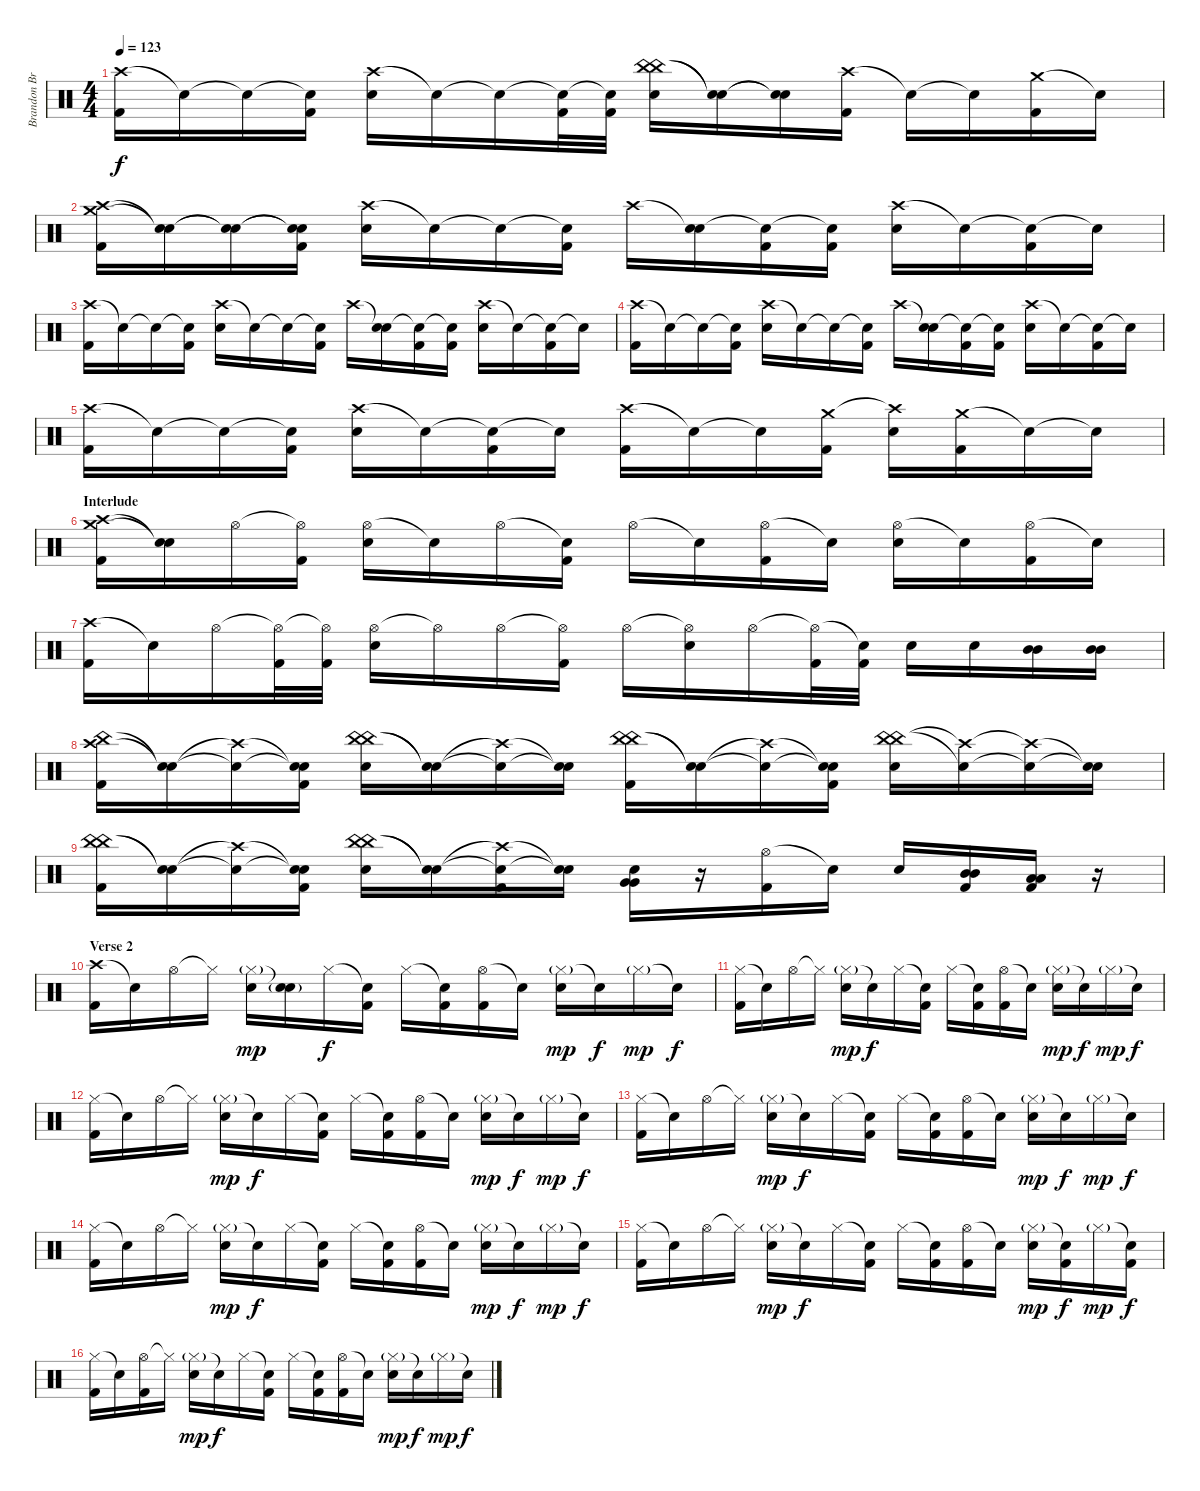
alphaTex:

\track ("Brandon Brown (Drums)" "Brandon Br") {instrument percussion}
\staff {score}
\articulation defaults
\ts (4 4)
\tempo 123
\clef neutral
\ks c
("Crash high (hit)" "Kick (hit) 2").16{dy f} "Snare (hit)"{t}.16 "Snare (hit)"{t}.16 ("Snare (hit)"{t} "Kick (hit) 2").16 ("Crash high (hit)" "Electric Snare (hit)").16 "Snare (hit)"{t}.16 "Snare (hit)"{t}.16 ("Snare (hit)"{t} "Kick (hit) 2").32 ("Snare (hit)"{t} "Kick (hit) 2").32 ("China (hit)" "China (hit)" "Electric Snare (hit)").16 ("Snare (hit)"{t} "Snare (hit)"{t}).16 ("Snare (hit)"{t} "Snare (hit)"{t}).16 ("Crash high (hit)" "Kick (hit) 2").16 "Snare (hit)"{t}.16 "Snare (hit)"{t}.16 ("Crash medium (hit)" "Kick (hit) 2").16 "Snare (hit)"{t}.16 |
("Crash high (hit)" "Crash medium (hit)" "Kick (hit) 2").16 ("Snare (hit)"{t} "Snare (hit)"{t}).16 ("Snare (hit)"{t} "Snare (hit)"{t}).16 ("Snare (hit)"{t} "Snare (hit)"{t} "Kick (hit) 2").16 ("Crash high (hit)" "Electric Snare (hit)").16 "Snare (hit)"{t}.16 "Snare (hit)"{t}.16 ("Snare (hit)"{t} "Kick (hit) 2").16 "Crash high (hit)".16 ("Snare (hit)"{t} "Electric Snare (hit)").16 ("Snare (hit)"{t} "Kick (hit) 2").16 ("Snare (hit)"{t} "Kick (hit) 2").16 ("Crash high (hit)" "Electric Snare (hit)").16 "Snare (hit)"{t}.16 ("Snare (hit)"{t} "Kick (hit) 2").16 "Snare (hit)"{t}.16 |
("Crash high (hit)" "Kick (hit) 2").16 "Snare (hit)"{t}.16 "Snare (hit)"{t}.16 ("Snare (hit)"{t} "Kick (hit) 2").16 ("Crash high (hit)" "Electric Snare (hit)").16 "Snare (hit)"{t}.16 "Snare (hit)"{t}.16 ("Snare (hit)"{t} "Kick (hit) 2").16 "Crash high (hit)".16 ("Snare (hit)"{t} "Electric Snare (hit)").16 ("Snare (hit)"{t} "Kick (hit) 2").16 ("Snare (hit)"{t} "Kick (hit) 2").16 ("Crash high (hit)" "Electric Snare (hit)").16 "Snare (hit)"{t}.16 ("Snare (hit)"{t} "Kick (hit) 2").16 "Snare (hit)"{t}.16 |
("Crash high (hit)" "Kick (hit) 2").16 "Snare (hit)"{t}.16 "Snare (hit)"{t}.16 ("Snare (hit)"{t} "Kick (hit) 2").16 ("Crash high (hit)" "Electric Snare (hit)").16 "Snare (hit)"{t}.16 "Snare (hit)"{t}.16 ("Snare (hit)"{t} "Kick (hit) 2").16 "Crash high (hit)".16 ("Snare (hit)"{t} "Electric Snare (hit)").16 ("Snare (hit)"{t} "Kick (hit) 2").16 ("Snare (hit)"{t} "Kick (hit) 2").16 ("Crash high (hit)" "Electric Snare (hit)").16 "Snare (hit)"{t}.16 ("Snare (hit)"{t} "Kick (hit) 2").16 "Snare (hit)"{t}.16 |
("Crash high (hit)" "Kick (hit) 2").16 "Snare (hit)"{t}.16 "Snare (hit)"{t}.16 ("Snare (hit)"{t} "Kick (hit) 2").16 ("Crash high (hit)" "Electric Snare (hit)").16 "Snare (hit)"{t}.16 ("Snare (hit)"{t} "Kick (hit) 2").16 "Snare (hit)"{t}.16 ("Crash high (hit)" "Kick (hit) 2").16 "Snare (hit)"{t}.16 "Snare (hit)"{t}.16 ("Crash medium (hit)" "Kick (hit) 2").16 ("Crash high (hit)"{t} "Electric Snare (hit)").16 ("Crash medium (hit)" "Kick (hit) 2").16 "Snare (hit)"{t}.16 "Snare (hit)"{t}.16 |
\section ("" "Interlude")
("Crash high (hit)" "Crash medium (hit)" "Kick (hit) 2").16 ("Snare (hit)"{t} "Snare (hit)"{t}).16 "Hi-Hat (open)".16 ("Hi-Hat (open)"{t} "Kick (hit) 2").16 ("Hi-Hat (open)" "Electric Snare (hit)").16 "Snare (hit)"{t}.16 "Hi-Hat (open)".16 ("Snare (hit)"{t} "Kick (hit) 2").16 "Hi-Hat (open)".16 "Snare (hit)"{t}.16 ("Hi-Hat (open)" "Kick (hit) 2").16 "Snare (hit)"{t}.16 ("Hi-Hat (open)" "Electric Snare (hit)").16 "Snare (hit)"{t}.16 ("Hi-Hat (open)" "Kick (hit) 2").16 "Snare (hit)"{t}.16 |
("Crash high (hit)" "Kick (hit) 2").16 "Snare (hit)"{t}.16 "Hi-Hat (open)".16 ("Hi-Hat (open)"{t} "Kick (hit) 2").32 ("Hi-Hat (open)"{t} "Kick (hit) 2").32 ("Hi-Hat (open)" "Electric Snare (hit)").16 "Hi-Hat (open)"{t}.16 "Hi-Hat (open)".16 ("Hi-Hat (open)"{t} "Kick (hit) 2").16 "Hi-Hat (open)".16 ("Hi-Hat (open)"{t} "Electric Snare (hit)").16 "Hi-Hat (open)".16 ("Hi-Hat (open)"{t} "Kick (hit) 2").32 ("Snare (hit)"{t} "Kick (hit) 2").32 "Electric Snare (hit)".16 "Electric Snare (hit)".16 ("Mid Tom (hit)" "Mid Tom (hit)").16 ("Mid Tom (hit)" "Mid Tom (hit)").16 |
("Crash high (hit)" "China (hit)" "Kick (hit) 2").16 ("Snare (hit)"{t} "Snare (hit)"{t}).16 ("Crash high (hit)"{t} "Snare (hit)"{t}).16 ("Snare (hit)"{t} "Snare (hit)"{t} "Kick (hit) 2").16 ("China (hit)" "China (hit)" "Electric Snare (hit)").16 ("Snare (hit)"{t} "Snare (hit)"{t}).16 ("Crash high (hit)"{t} "Snare (hit)"{t}).16 ("Snare (hit)"{t} "Snare (hit)"{t}).16 ("China (hit)" "China (hit)" "Kick (hit) 2").16 ("Snare (hit)"{t} "Snare (hit)"{t}).16 ("Crash high (hit)"{t} "Snare (hit)"{t}).16 ("Snare (hit)"{t} "Snare (hit)"{t} "Kick (hit) 2").16 ("China (hit)" "China (hit)" "Electric Snare (hit)").16 ("Crash high (hit)"{t} "Snare (hit)"{t}).16 ("Crash high (hit)"{t} "Snare (hit)"{t}).16 ("Snare (hit)"{t} "Snare (hit)"{t}).16 |
("China (hit)" "China (hit)" "Kick (hit) 2").16 ("Snare (hit)"{t} "Snare (hit)"{t}).16 ("Crash high (hit)"{t} "Snare (hit)"{t}).16 ("Snare (hit)"{t} "Snare (hit)"{t} "Kick (hit) 2").16 ("China (hit)" "China (hit)" "Electric Snare (hit)").16 ("Snare (hit)"{t} "Snare (hit)"{t}).16 ("Crash high (hit)"{t} "Snare (hit)"{t} "Kick (hit) 2").16 ("Snare (hit)"{t} "Snare (hit)"{t}).16 ("Electric Snare (hit)" "Very Low Tom (hit)" "Very Low Tom (hit)").16 r.16 ("Hi-Hat (open)" "Kick (hit) 2").16 "Snare (hit)"{t}.16 "Electric Snare (hit)".16 ("Mid Tom (hit)" "Mid Tom (hit)" "Kick (hit) 2").16 ("Low Tom (hit)" "Low Tom (hit)" "Kick (hit) 2").16 r.16 |
\section ("" "Verse 2")
("Crash high (hit)" "Kick (hit) 2").16 "Snare (hit)"{t}.16 "Hi-Hat (open)".16 "Hi-Hat (closed)"{t}.16 ("Hi-Hat (closed)"{g} "Electric Snare (hit)").16{dy mp} ("Snare (hit)"{t} "Electric Snare (hit)"{g}).16 "Hi-Hat (closed)".16{dy f} ("Snare (hit)"{t} "Kick (hit) 2").16 "Hi-Hat (closed)".16 ("Snare (hit)"{t} "Kick (hit) 2").16 ("Hi-Hat (open)" "Kick (hit) 2").16 "Snare (hit)"{t}.16 ("Hi-Hat (closed)"{g} "Electric Snare (hit)").16{dy mp} "Snare (hit)"{t}.16{dy f} "Hi-Hat (closed)"{g}.16{dy mp} "Snare (hit)"{t}.16{dy f} |
("Hi-Hat (closed)" "Kick (hit) 2").16 "Snare (hit)"{t}.16 "Hi-Hat (open)".16 "Hi-Hat (closed)"{t}.16 ("Hi-Hat (closed)"{g} "Electric Snare (hit)").16{dy mp} "Snare (hit)"{t}.16{dy f} "Hi-Hat (closed)".16 ("Snare (hit)"{t} "Kick (hit) 2").16 "Hi-Hat (closed)".16 ("Snare (hit)"{t} "Kick (hit) 2").16 ("Hi-Hat (open)" "Kick (hit) 2").16 "Snare (hit)"{t}.16 ("Hi-Hat (closed)"{g} "Electric Snare (hit)").16{dy mp} "Snare (hit)"{t}.16{dy f} "Hi-Hat (closed)"{g}.16{dy mp} "Snare (hit)"{t}.16{dy f} |
("Hi-Hat (closed)" "Kick (hit) 2").16 "Snare (hit)"{t}.16 "Hi-Hat (open)".16 "Hi-Hat (closed)"{t}.16 ("Hi-Hat (closed)"{g} "Electric Snare (hit)").16{dy mp} "Snare (hit)"{t}.16{dy f} "Hi-Hat (closed)".16 ("Snare (hit)"{t} "Kick (hit) 2").16 "Hi-Hat (closed)".16 ("Snare (hit)"{t} "Kick (hit) 2").16 ("Hi-Hat (open)" "Kick (hit) 2").16 "Snare (hit)"{t}.16 ("Hi-Hat (closed)"{g} "Electric Snare (hit)").16{dy mp} "Snare (hit)"{t}.16{dy f} "Hi-Hat (closed)"{g}.16{dy mp} "Snare (hit)"{t}.16{dy f} |
("Hi-Hat (closed)" "Kick (hit) 2").16 "Snare (hit)"{t}.16 "Hi-Hat (open)".16 "Hi-Hat (closed)"{t}.16 ("Hi-Hat (closed)"{g} "Electric Snare (hit)").16{dy mp} "Snare (hit)"{t}.16{dy f} "Hi-Hat (closed)".16 ("Snare (hit)"{t} "Kick (hit) 2").16 "Hi-Hat (closed)".16 ("Snare (hit)"{t} "Kick (hit) 2").16 ("Hi-Hat (open)" "Kick (hit) 2").16 "Snare (hit)"{t}.16 ("Hi-Hat (closed)"{g} "Electric Snare (hit)").16{dy mp} "Snare (hit)"{t}.16{dy f} "Hi-Hat (closed)"{g}.16{dy mp} "Snare (hit)"{t}.16{dy f} |
("Hi-Hat (closed)" "Kick (hit) 2").16 "Snare (hit)"{t}.16 "Hi-Hat (open)".16 "Hi-Hat (closed)"{t}.16 ("Hi-Hat (closed)"{g} "Electric Snare (hit)").16{dy mp} "Snare (hit)"{t}.16{dy f} "Hi-Hat (closed)".16 ("Snare (hit)"{t} "Kick (hit) 2").16 "Hi-Hat (closed)".16 ("Snare (hit)"{t} "Kick (hit) 2").16 ("Hi-Hat (open)" "Kick (hit) 2").16 "Snare (hit)"{t}.16 ("Hi-Hat (closed)"{g} "Electric Snare (hit)").16{dy mp} "Snare (hit)"{t}.16{dy f} "Hi-Hat (closed)"{g}.16{dy mp} "Snare (hit)"{t}.16{dy f} |
("Hi-Hat (closed)" "Kick (hit) 2").16 "Snare (hit)"{t}.16 "Hi-Hat (open)".16 "Hi-Hat (closed)"{t}.16 ("Hi-Hat (closed)"{g} "Electric Snare (hit)").16{dy mp} "Snare (hit)"{t}.16{dy f} "Hi-Hat (closed)".16 ("Snare (hit)"{t} "Kick (hit) 2").16 "Hi-Hat (closed)".16 ("Snare (hit)"{t} "Kick (hit) 2").16 ("Hi-Hat (open)" "Kick (hit) 2").16 "Snare (hit)"{t}.16 ("Hi-Hat (closed)"{g} "Electric Snare (hit)").16{dy mp} ("Snare (hit)"{t} "Kick (hit) 2").16{dy f} "Hi-Hat (closed)"{g}.16{dy mp} ("Snare (hit)"{t} "Kick (hit) 2").16{dy f} |
("Hi-Hat (closed)" "Kick (hit) 2").16 "Snare (hit)"{t}.16 ("Hi-Hat (open)" "Kick (hit) 2").16 "Hi-Hat (closed)"{t}.16 ("Hi-Hat (closed)"{g} "Electric Snare (hit)").16{dy mp} "Snare (hit)"{t}.16{dy f} "Hi-Hat (closed)".16 ("Snare (hit)"{t} "Kick (hit) 2").16 "Hi-Hat (closed)".16 ("Snare (hit)"{t} "Kick (hit) 2").16 ("Hi-Hat (open)" "Kick (hit) 2").16 "Snare (hit)"{t}.16 ("Hi-Hat (closed)"{g} "Electric Snare (hit)").16{dy mp} "Snare (hit)"{t}.16{dy f} "Hi-Hat (closed)"{g}.16{dy mp} "Snare (hit)"{t}.16{dy f}
